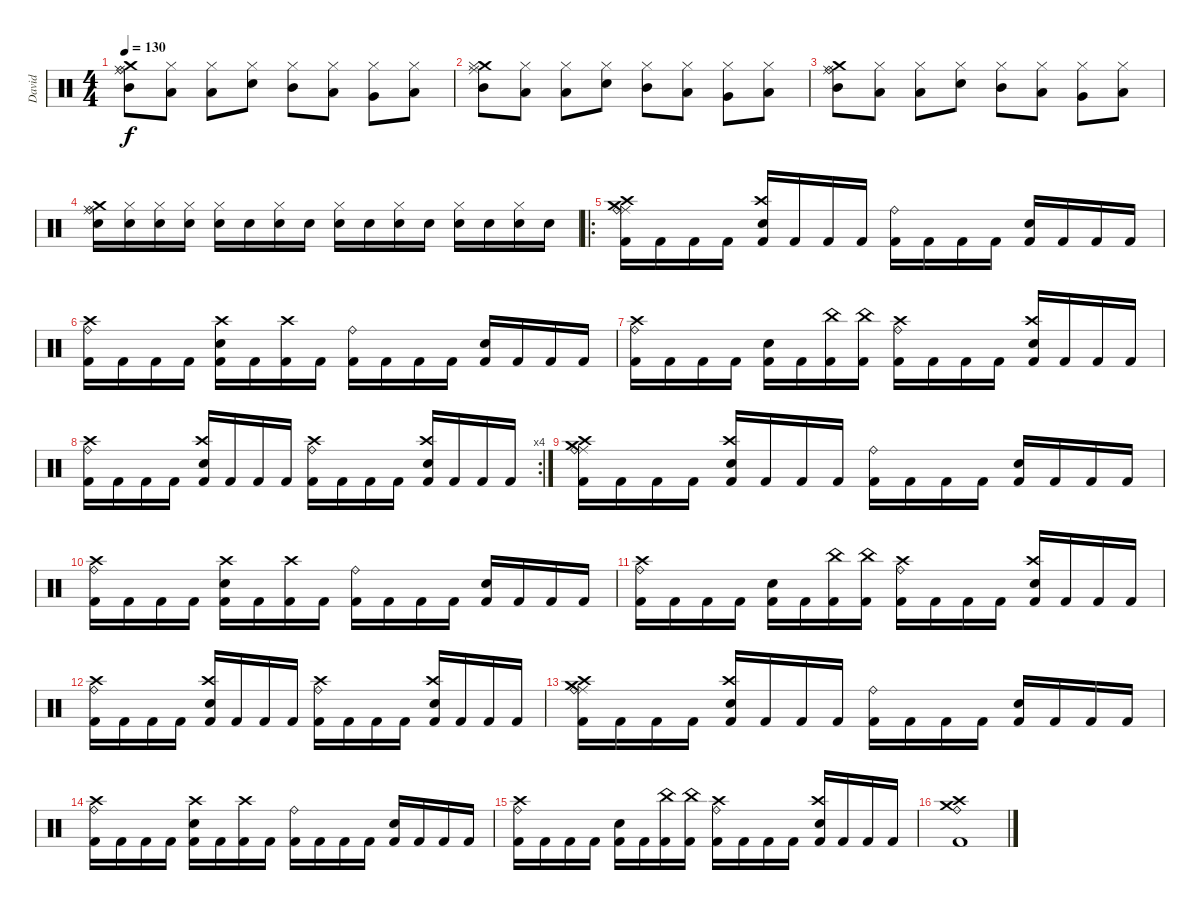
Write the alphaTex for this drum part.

\track ("David" "David") {instrument percussion}
\staff {score}
\articulation defaults
\ts (4 4)
\tempo 130
\clef neutral
\ks c
("Crash medium (hit)" "Ride (middle)" "Ride (bell)" "Mid Tom (hit)").8{dy f} ("Hi-Hat (closed)" "Low Tom (hit)").8 ("Hi-Hat (closed)" "Low Floor Tom (hit)").8 ("Hi-Hat (closed)" "Electric Snare (hit)").8 ("Hi-Hat (closed)" "Mid Tom (hit)").8 ("Hi-Hat (closed)" "Low Tom (hit)").8 ("Hi-Hat (closed)" "Very Low Tom (hit)").8 ("Hi-Hat (closed)" "Low Floor Tom (hit)").8 |
("Crash medium (hit)" "Ride (middle)" "Hi-Hat (closed)" "Mid Tom (hit)").8 ("Hi-Hat (closed)" "Low Tom (hit)").8 ("Hi-Hat (closed)" "Low Floor Tom (hit)").8 ("Hi-Hat (closed)" "Electric Snare (hit)").8 ("Hi-Hat (closed)" "Mid Tom (hit)").8 ("Hi-Hat (closed)" "Low Tom (hit)").8 ("Hi-Hat (closed)" "Very Low Tom (hit)").8 ("Hi-Hat (closed)" "Low Floor Tom (hit)").8 |
("Crash medium (hit)" "Ride (middle)" "Ride (bell)" "Mid Tom (hit)").8 ("Hi-Hat (closed)" "Low Tom (hit)").8 ("Hi-Hat (closed)" "Low Floor Tom (hit)").8 ("Hi-Hat (closed)" "Electric Snare (hit)").8 ("Hi-Hat (closed)" "Mid Tom (hit)").8 ("Hi-Hat (closed)" "Low Tom (hit)").8 ("Hi-Hat (closed)" "Very Low Tom (hit)").8 ("Hi-Hat (closed)" "Low Floor Tom (hit)").8 |
("Crash medium (hit)" "Ride (middle)" "Ride (bell)" "Electric Snare (hit)").16 ("Hi-Hat (closed)" "Electric Snare (hit)").16 ("Hi-Hat (closed)" "Electric Snare (hit)").16 ("Hi-Hat (closed)" "Electric Snare (hit)").16 ("Hi-Hat (closed)" "Electric Snare (hit)").16 "Electric Snare (hit)".16 ("Hi-Hat (closed)" "Electric Snare (hit)").16 "Electric Snare (hit)".16 ("Hi-Hat (closed)" "Electric Snare (hit)").16 "Electric Snare (hit)".16 ("Hi-Hat (closed)" "Electric Snare (hit)").16 "Electric Snare (hit)".16 ("Hi-Hat (closed)" "Electric Snare (hit)").16 "Electric Snare (hit)".16 ("Hi-Hat (closed)" "Electric Snare (hit)").16 "Electric Snare (hit)".16 |
\ro
("Crash medium (hit)" "Ride (middle)" "Ride (bell)" "Crash high (hit)" "Kick (hit) 2").16 "Kick (hit) 2".16 "Kick (hit) 2".16 "Kick (hit) 2".16 ("Crash high (hit)" "Electric Snare (hit)" "Kick (hit) 2").16 "Kick (hit) 2".16 "Kick (hit) 2".16 "Kick (hit) 2".16 ("Ride (bell)" "Kick (hit) 2").16 "Kick (hit) 2".16 "Kick (hit) 2".16 "Kick (hit) 2".16 ("Electric Snare (hit)" "Kick (hit) 2").16 "Kick (hit) 2".16 "Kick (hit) 2".16 "Kick (hit) 2".16 |
("Crash high (hit)" "Ride (bell)" "Kick (hit) 2").16 "Kick (hit) 2".16 "Kick (hit) 2".16 "Kick (hit) 2".16 ("Crash high (hit)" "Electric Snare (hit)" "Kick (hit) 2").16 "Kick (hit) 2".16 ("Crash high (hit)" "Kick (hit) 2").16 "Kick (hit) 2".16 ("Ride (bell)" "Kick (hit) 2").16 "Kick (hit) 2".16 "Kick (hit) 2".16 "Kick (hit) 2".16 ("Electric Snare (hit)" "Kick (hit) 2").16 "Kick (hit) 2".16 "Kick (hit) 2".16 "Kick (hit) 2".16 |
("Crash high (hit)" "Ride (bell)" "Kick (hit) 2").16 "Kick (hit) 2".16 "Kick (hit) 2".16 "Kick (hit) 2".16 ("Electric Snare (hit)" "Kick (hit) 2").16 "Kick (hit) 2".16 ("China (hit)" "Kick (hit) 2").16 ("China (hit)" "Kick (hit) 2").16 ("Crash high (hit)" "Ride (bell)" "Kick (hit) 2").16 "Kick (hit) 2".16 "Kick (hit) 2".16 "Kick (hit) 2".16 ("Crash high (hit)" "Electric Snare (hit)" "Kick (hit) 2").16 "Kick (hit) 2".16 "Kick (hit) 2".16 "Kick (hit) 2".16 |
\rc 4
("Crash high (hit)" "Ride (bell)" "Kick (hit) 2").16 "Kick (hit) 2".16 "Kick (hit) 2".16 "Kick (hit) 2".16 ("Crash high (hit)" "Electric Snare (hit)" "Kick (hit) 2").16 "Kick (hit) 2".16 "Kick (hit) 2".16 "Kick (hit) 2".16 ("Crash high (hit)" "Ride (bell)" "Kick (hit) 2").16 "Kick (hit) 2".16 "Kick (hit) 2".16 "Kick (hit) 2".16 ("Crash high (hit)" "Electric Snare (hit)" "Kick (hit) 2").16 "Kick (hit) 2".16 "Kick (hit) 2".16 "Kick (hit) 2".16 |
("Crash medium (hit)" "Ride (middle)" "Ride (bell)" "Crash high (hit)" "Kick (hit) 2").16 "Kick (hit) 2".16 "Kick (hit) 2".16 "Kick (hit) 2".16 ("Crash high (hit)" "Electric Snare (hit)" "Kick (hit) 2").16 "Kick (hit) 2".16 "Kick (hit) 2".16 "Kick (hit) 2".16 ("Ride (bell)" "Kick (hit) 2").16 "Kick (hit) 2".16 "Kick (hit) 2".16 "Kick (hit) 2".16 ("Electric Snare (hit)" "Kick (hit) 2").16 "Kick (hit) 2".16 "Kick (hit) 2".16 "Kick (hit) 2".16 |
("Crash high (hit)" "Ride (bell)" "Kick (hit) 2").16 "Kick (hit) 2".16 "Kick (hit) 2".16 "Kick (hit) 2".16 ("Crash high (hit)" "Electric Snare (hit)" "Kick (hit) 2").16 "Kick (hit) 2".16 ("Crash high (hit)" "Kick (hit) 2").16 "Kick (hit) 2".16 ("Ride (bell)" "Kick (hit) 2").16 "Kick (hit) 2".16 "Kick (hit) 2".16 "Kick (hit) 2".16 ("Electric Snare (hit)" "Kick (hit) 2").16 "Kick (hit) 2".16 "Kick (hit) 2".16 "Kick (hit) 2".16 |
("Crash high (hit)" "Ride (bell)" "Kick (hit) 2").16 "Kick (hit) 2".16 "Kick (hit) 2".16 "Kick (hit) 2".16 ("Electric Snare (hit)" "Kick (hit) 2").16 "Kick (hit) 2".16 ("China (hit)" "Kick (hit) 2").16 ("China (hit)" "Kick (hit) 2").16 ("Crash high (hit)" "Ride (bell)" "Kick (hit) 2").16 "Kick (hit) 2".16 "Kick (hit) 2".16 "Kick (hit) 2".16 ("Crash high (hit)" "Electric Snare (hit)" "Kick (hit) 2").16 "Kick (hit) 2".16 "Kick (hit) 2".16 "Kick (hit) 2".16 |
("Crash high (hit)" "Ride (bell)" "Kick (hit) 2").16 "Kick (hit) 2".16 "Kick (hit) 2".16 "Kick (hit) 2".16 ("Crash high (hit)" "Electric Snare (hit)" "Kick (hit) 2").16 "Kick (hit) 2".16 "Kick (hit) 2".16 "Kick (hit) 2".16 ("Crash high (hit)" "Ride (bell)" "Kick (hit) 2").16 "Kick (hit) 2".16 "Kick (hit) 2".16 "Kick (hit) 2".16 ("Crash high (hit)" "Electric Snare (hit)" "Kick (hit) 2").16 "Kick (hit) 2".16 "Kick (hit) 2".16 "Kick (hit) 2".16 |
("Crash medium (hit)" "Ride (middle)" "Ride (bell)" "Crash high (hit)" "Kick (hit) 2").16 "Kick (hit) 2".16 "Kick (hit) 2".16 "Kick (hit) 2".16 ("Crash high (hit)" "Electric Snare (hit)" "Kick (hit) 2").16 "Kick (hit) 2".16 "Kick (hit) 2".16 "Kick (hit) 2".16 ("Ride (bell)" "Kick (hit) 2").16 "Kick (hit) 2".16 "Kick (hit) 2".16 "Kick (hit) 2".16 ("Electric Snare (hit)" "Kick (hit) 2").16 "Kick (hit) 2".16 "Kick (hit) 2".16 "Kick (hit) 2".16 |
("Crash high (hit)" "Ride (bell)" "Kick (hit) 2").16 "Kick (hit) 2".16 "Kick (hit) 2".16 "Kick (hit) 2".16 ("Crash high (hit)" "Electric Snare (hit)" "Kick (hit) 2").16 "Kick (hit) 2".16 ("Crash high (hit)" "Kick (hit) 2").16 "Kick (hit) 2".16 ("Ride (bell)" "Kick (hit) 2").16 "Kick (hit) 2".16 "Kick (hit) 2".16 "Kick (hit) 2".16 ("Electric Snare (hit)" "Kick (hit) 2").16 "Kick (hit) 2".16 "Kick (hit) 2".16 "Kick (hit) 2".16 |
("Crash high (hit)" "Ride (bell)" "Kick (hit) 2").16 "Kick (hit) 2".16 "Kick (hit) 2".16 "Kick (hit) 2".16 ("Electric Snare (hit)" "Kick (hit) 2").16 "Kick (hit) 2".16 ("China (hit)" "Kick (hit) 2").16 ("China (hit)" "Kick (hit) 2").16 ("Crash high (hit)" "Ride (bell)" "Kick (hit) 2").16 "Kick (hit) 2".16 "Kick (hit) 2".16 "Kick (hit) 2".16 ("Crash high (hit)" "Electric Snare (hit)" "Kick (hit) 2").16 "Kick (hit) 2".16 "Kick (hit) 2".16 "Kick (hit) 2".16 |
("Crash high (hit)" "Ride (bell)" "Crash medium (hit)" "Kick (hit) 2").1
